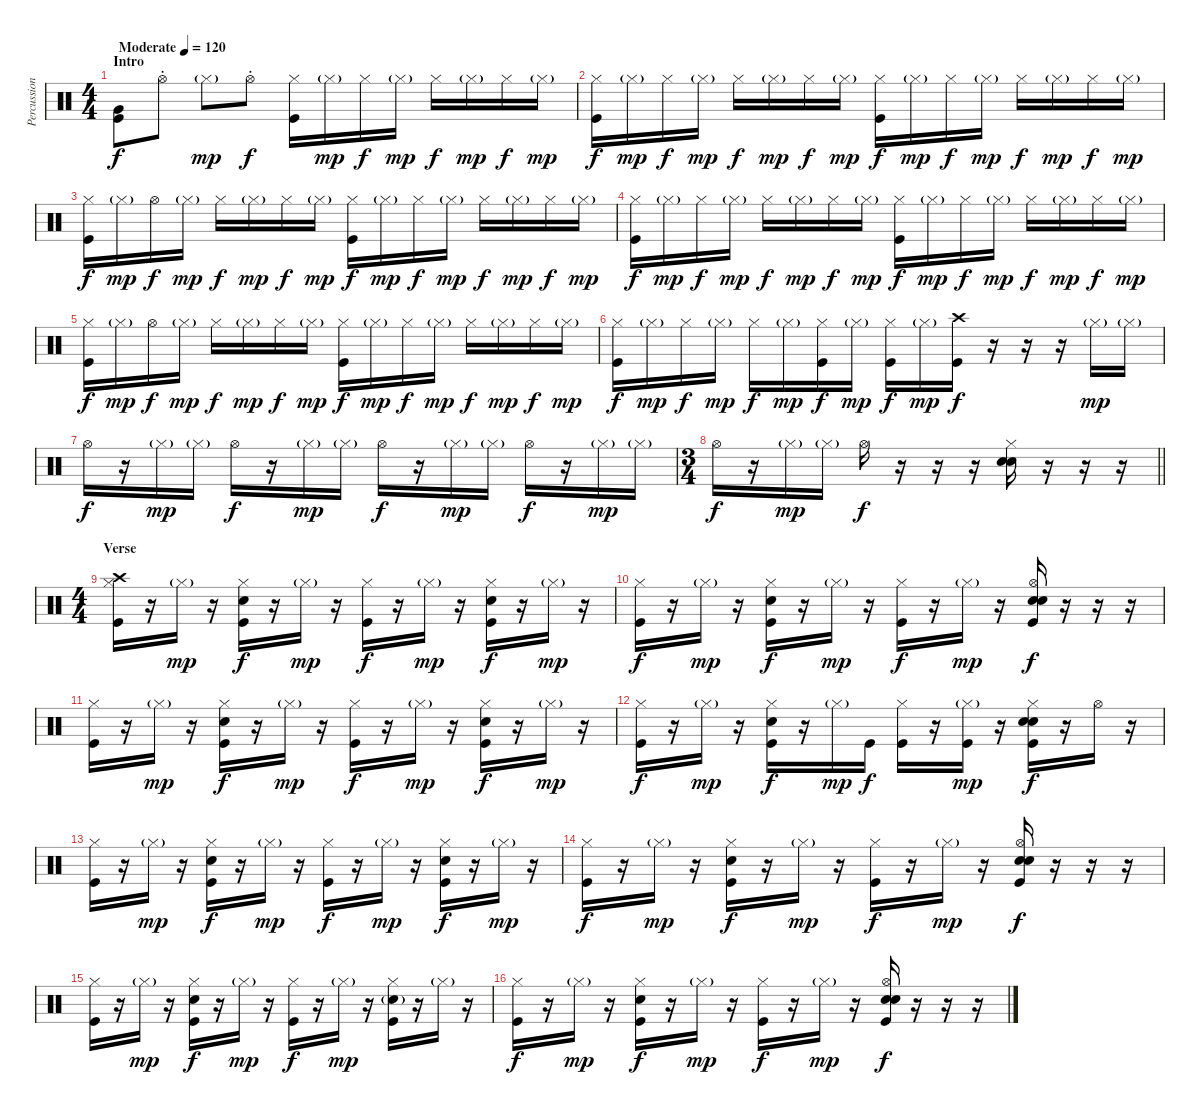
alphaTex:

\track ("Percussion" "Percussion") {instrument percussion}
\staff {score}
\articulation defaults
\ts (4 4)
\section ("" "Intro")
\tempo (120 "Moderate")
\clef neutral
\ks c
("Very Low Tom (hit)" "Kick (hit)").8{dy f} "Hi-Hat (open)"{st}.8 "Hi-Hat (closed)"{g}.8{dy mp} "Hi-Hat (open)"{st}.8{dy f} ("Hi-Hat (closed)" "Kick (hit)").16 "Hi-Hat (closed)"{g}.16{dy mp} "Hi-Hat (closed)".16{dy f} "Hi-Hat (closed)"{g}.16{dy mp} "Hi-Hat (closed)".16{dy f} "Hi-Hat (closed)"{g}.16{dy mp} "Hi-Hat (closed)".16{dy f} "Hi-Hat (closed)"{g}.16{dy mp} |
("Hi-Hat (closed)" "Kick (hit)").16{dy f} "Hi-Hat (closed)"{g}.16{dy mp} "Hi-Hat (closed)".16{dy f} "Hi-Hat (closed)"{g}.16{dy mp} "Hi-Hat (closed)".16{dy f} "Hi-Hat (closed)"{g}.16{dy mp} "Hi-Hat (closed)".16{dy f} "Hi-Hat (closed)"{g}.16{dy mp} ("Hi-Hat (closed)" "Kick (hit)").16{dy f} "Hi-Hat (closed)"{g}.16{dy mp} "Hi-Hat (closed)".16{dy f} "Hi-Hat (closed)"{g}.16{dy mp} "Hi-Hat (closed)".16{dy f} "Hi-Hat (closed)"{g}.16{dy mp} "Hi-Hat (closed)".16{dy f} "Hi-Hat (closed)"{g}.16{dy mp} |
("Hi-Hat (closed)" "Kick (hit)").16{dy f} "Hi-Hat (closed)"{g}.16{dy mp} "Hi-Hat (open)".16{dy f} "Hi-Hat (closed)"{g}.16{dy mp} "Hi-Hat (closed)".16{dy f} "Hi-Hat (closed)"{g}.16{dy mp} "Hi-Hat (closed)".16{dy f} "Hi-Hat (closed)"{g}.16{dy mp} ("Hi-Hat (closed)" "Kick (hit)").16{dy f} "Hi-Hat (closed)"{g}.16{dy mp} "Hi-Hat (closed)".16{dy f} "Hi-Hat (closed)"{g}.16{dy mp} "Hi-Hat (closed)".16{dy f} "Hi-Hat (closed)"{g}.16{dy mp} "Hi-Hat (closed)".16{dy f} "Hi-Hat (closed)"{g}.16{dy mp} |
("Hi-Hat (closed)" "Kick (hit)").16{dy f} "Hi-Hat (closed)"{g}.16{dy mp} "Hi-Hat (closed)".16{dy f} "Hi-Hat (closed)"{g}.16{dy mp} "Hi-Hat (closed)".16{dy f} "Hi-Hat (closed)"{g}.16{dy mp} "Hi-Hat (closed)".16{dy f} "Hi-Hat (closed)"{g}.16{dy mp} ("Hi-Hat (closed)" "Kick (hit)").16{dy f} "Hi-Hat (closed)"{g}.16{dy mp} "Hi-Hat (closed)".16{dy f} "Hi-Hat (closed)"{g}.16{dy mp} "Hi-Hat (closed)".16{dy f} "Hi-Hat (closed)"{g}.16{dy mp} "Hi-Hat (closed)".16{dy f} "Hi-Hat (closed)"{g}.16{dy mp} |
("Hi-Hat (closed)" "Kick (hit)").16{dy f} "Hi-Hat (closed)"{g}.16{dy mp} "Hi-Hat (open)".16{dy f} "Hi-Hat (closed)"{g}.16{dy mp} "Hi-Hat (closed)".16{dy f} "Hi-Hat (closed)"{g}.16{dy mp} "Hi-Hat (closed)".16{dy f} "Hi-Hat (closed)"{g}.16{dy mp} ("Hi-Hat (closed)" "Kick (hit)").16{dy f} "Hi-Hat (closed)"{g}.16{dy mp} "Hi-Hat (closed)".16{dy f} "Hi-Hat (closed)"{g}.16{dy mp} "Hi-Hat (closed)".16{dy f} "Hi-Hat (closed)"{g}.16{dy mp} "Hi-Hat (closed)".16{dy f} "Hi-Hat (closed)"{g}.16{dy mp} |
("Hi-Hat (closed)" "Kick (hit)").16{dy f} "Hi-Hat (closed)"{g}.16{dy mp} "Hi-Hat (closed)".16{dy f} "Hi-Hat (closed)"{g}.16{dy mp} "Hi-Hat (closed)".16{dy f} "Hi-Hat (closed)"{g}.16{dy mp} ("Hi-Hat (closed)" "Kick (hit)").16{dy f} "Hi-Hat (closed)"{g}.16{dy mp} ("Hi-Hat (closed)" "Kick (hit)").16{dy f} "Hi-Hat (closed)"{g}.16{dy mp} ("Crash high (hit)" "Kick (hit)").16{dy f} r.16 r.16 r.16 "Hi-Hat (closed)"{g}.16{dy mp} "Hi-Hat (closed)"{g}.16 |
"Hi-Hat (open)".16{dy f} r.16 "Hi-Hat (closed)"{g}.16{dy mp} "Hi-Hat (closed)"{g}.16 "Hi-Hat (open)".16{dy f} r.16 "Hi-Hat (closed)"{g}.16{dy mp} "Hi-Hat (closed)"{g}.16 "Hi-Hat (open)".16{dy f} r.16 "Hi-Hat (closed)"{g}.16{dy mp} "Hi-Hat (closed)"{g}.16 "Hi-Hat (open)".16{dy f} r.16 "Hi-Hat (closed)"{g}.16{dy mp} "Hi-Hat (closed)"{g}.16 |
\ts (3 4)
\barLineRight lightlight "Hi-Hat (open)".16{dy f}
r.16 "Hi-Hat (closed)"{g}.16{dy mp} "Hi-Hat (closed)"{g}.16 "Hi-Hat (open)".16{dy f} r.16 r.16 r.16 ("Hi-Hat (closed)" "Hand Clap (hit)" "Snare (hit) 2").16 r.16 r.16 r.16 |
\ts (4 4)
\section ("" "Verse")
("Crash high (hit)" "Hi-Hat (closed)" "Kick (hit)").16 r.16 "Hi-Hat (closed)"{g}.16{dy mp} r.16 ("Hi-Hat (closed)" "Snare (hit) 2" "Kick (hit)").16{dy f} r.16 "Hi-Hat (closed)"{g}.16{dy mp} r.16 ("Hi-Hat (closed)" "Kick (hit)").16{dy f} r.16 "Hi-Hat (closed)"{g}.16{dy mp} r.16 ("Hi-Hat (closed)" "Snare (hit) 2" "Kick (hit)").16{dy f} r.16 "Hi-Hat (closed)"{g}.16{dy mp} r.16 |
("Hi-Hat (closed)" "Kick (hit)").16{dy f} r.16 "Hi-Hat (closed)"{g}.16{dy mp} r.16 ("Hi-Hat (closed)" "Snare (hit) 2" "Kick (hit)").16{dy f} r.16 "Hi-Hat (closed)"{g}.16{dy mp} r.16 ("Hi-Hat (closed)" "Kick (hit)").16{dy f} r.16 "Hi-Hat (closed)"{g}.16{dy mp} r.16 ("Hi-Hat (open)" "Hand Clap (hit)" "Snare (hit) 2" "Kick (hit)").16{dy f} r.16 r.16 r.16 |
("Hi-Hat (closed)" "Kick (hit)").16 r.16 "Hi-Hat (closed)"{g}.16{dy mp} r.16 ("Hi-Hat (closed)" "Snare (hit) 2" "Kick (hit)").16{dy f} r.16 "Hi-Hat (closed)"{g}.16{dy mp} r.16 ("Hi-Hat (closed)" "Kick (hit)").16{dy f} r.16 "Hi-Hat (closed)"{g}.16{dy mp} r.16 ("Hi-Hat (closed)" "Snare (hit) 2" "Kick (hit)").16{dy f} r.16 "Hi-Hat (closed)"{g}.16{dy mp} r.16 |
("Hi-Hat (closed)" "Kick (hit)").16{dy f} r.16 "Hi-Hat (closed)"{g}.16{dy mp} r.16 ("Hi-Hat (closed)" "Snare (hit) 2" "Kick (hit)").16{dy f} r.16 "Hi-Hat (closed)"{g}.16{dy mp} "Kick (hit)".16{dy f} ("Hi-Hat (closed)" "Kick (hit)").16 r.16 ("Hi-Hat (closed)"{g} "Kick (hit)").16{dy mp} r.16 ("Hi-Hat (closed)" "Hand Clap (hit)" "Snare (hit) 2" "Kick (hit)").16{dy f} r.16 "Hi-Hat (open)".16 r.16 |
("Hi-Hat (closed)" "Kick (hit)").16 r.16 "Hi-Hat (closed)"{g}.16{dy mp} r.16 ("Hi-Hat (closed)" "Snare (hit) 2" "Kick (hit)").16{dy f} r.16 "Hi-Hat (closed)"{g}.16{dy mp} r.16 ("Hi-Hat (closed)" "Kick (hit)").16{dy f} r.16 "Hi-Hat (closed)"{g}.16{dy mp} r.16 ("Hi-Hat (closed)" "Snare (hit) 2" "Kick (hit)").16{dy f} r.16 "Hi-Hat (closed)"{g}.16{dy mp} r.16 |
("Hi-Hat (closed)" "Kick (hit)").16{dy f} r.16 "Hi-Hat (closed)"{g}.16{dy mp} r.16 ("Hi-Hat (closed)" "Snare (hit) 2" "Kick (hit)").16{dy f} r.16 "Hi-Hat (closed)"{g}.16{dy mp} r.16 ("Hi-Hat (closed)" "Kick (hit)").16{dy f} r.16 "Hi-Hat (closed)"{g}.16{dy mp} r.16 ("Hi-Hat (open)" "Hand Clap (hit)" "Snare (hit) 2" "Kick (hit)").16{dy f} r.16 r.16 r.16 |
("Hi-Hat (closed)" "Kick (hit)").16 r.16 "Hi-Hat (closed)"{g}.16{dy mp} r.16 ("Hi-Hat (closed)" "Snare (hit) 2" "Kick (hit)").16{dy f} r.16 "Hi-Hat (closed)"{g}.16{dy mp} r.16 ("Hi-Hat (closed)" "Kick (hit)").16{dy f} r.16 "Hi-Hat (closed)"{g}.16{dy mp} r.16 ("Hi-Hat (closed)" "Snare (hit) 2"{g} "Kick (hit)").16 r.16 "Hi-Hat (closed)"{g}.16 r.16 |
("Hi-Hat (closed)" "Kick (hit)").16{dy f} r.16 "Hi-Hat (closed)"{g}.16{dy mp} r.16 ("Hi-Hat (closed)" "Snare (hit) 2" "Kick (hit)").16{dy f} r.16 "Hi-Hat (closed)"{g}.16{dy mp} r.16 ("Hi-Hat (closed)" "Kick (hit)").16{dy f} r.16 "Hi-Hat (closed)"{g}.16{dy mp} r.16 ("Hi-Hat (open)" "Hand Clap (hit)" "Snare (hit) 2" "Kick (hit)").16{dy f} r.16 r.16 r.16
